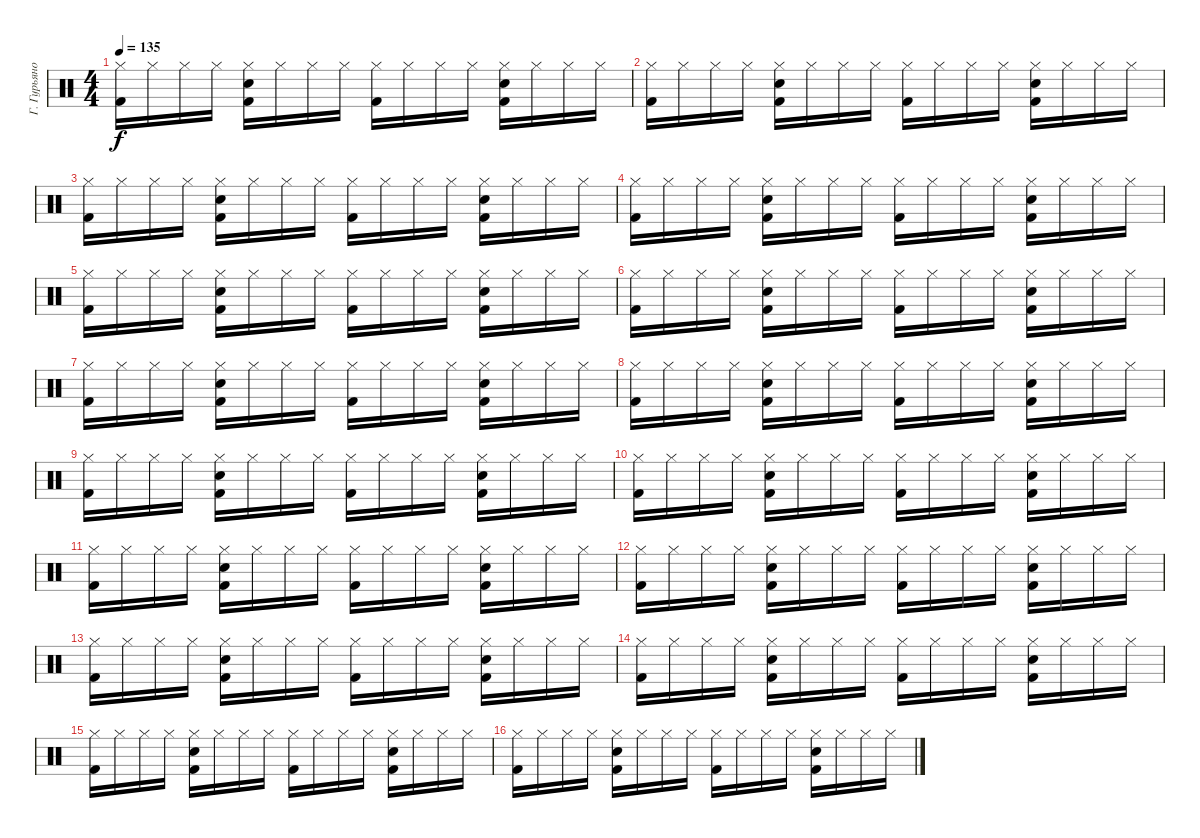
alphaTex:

\track ("Г. Гурьянов" "Г. Гурьяно") {instrument percussion}
\staff {score}
\articulation defaults
\ts (4 4)
\tempo 135
\clef neutral
\ks c
("Hi-Hat (closed)" "Kick (hit) 2").16{dy f} "Hi-Hat (closed)".16 "Hi-Hat (closed)".16 "Hi-Hat (closed)".16 ("Hi-Hat (closed)" "Electric Snare (hit)" "Kick (hit) 2").16 "Hi-Hat (closed)".16 "Hi-Hat (closed)".16 "Hi-Hat (closed)".16 ("Hi-Hat (closed)" "Kick (hit) 2").16 "Hi-Hat (closed)".16 "Hi-Hat (closed)".16 "Hi-Hat (closed)".16 ("Hi-Hat (closed)" "Electric Snare (hit)" "Kick (hit) 2").16 "Hi-Hat (closed)".16 "Hi-Hat (closed)".16 "Hi-Hat (closed)".16 |
("Hi-Hat (closed)" "Kick (hit) 2").16 "Hi-Hat (closed)".16 "Hi-Hat (closed)".16 "Hi-Hat (closed)".16 ("Hi-Hat (closed)" "Electric Snare (hit)" "Kick (hit) 2").16 "Hi-Hat (closed)".16 "Hi-Hat (closed)".16 "Hi-Hat (closed)".16 ("Hi-Hat (closed)" "Kick (hit) 2").16 "Hi-Hat (closed)".16 "Hi-Hat (closed)".16 "Hi-Hat (closed)".16 ("Hi-Hat (closed)" "Electric Snare (hit)" "Kick (hit) 2").16 "Hi-Hat (closed)".16 "Hi-Hat (closed)".16 "Hi-Hat (closed)".16 |
("Hi-Hat (closed)" "Kick (hit) 2").16 "Hi-Hat (closed)".16 "Hi-Hat (closed)".16 "Hi-Hat (closed)".16 ("Hi-Hat (closed)" "Electric Snare (hit)" "Kick (hit) 2").16 "Hi-Hat (closed)".16 "Hi-Hat (closed)".16 "Hi-Hat (closed)".16 ("Hi-Hat (closed)" "Kick (hit) 2").16 "Hi-Hat (closed)".16 "Hi-Hat (closed)".16 "Hi-Hat (closed)".16 ("Hi-Hat (closed)" "Electric Snare (hit)" "Kick (hit) 2").16 "Hi-Hat (closed)".16 "Hi-Hat (closed)".16 "Hi-Hat (closed)".16 |
("Hi-Hat (closed)" "Kick (hit) 2").16 "Hi-Hat (closed)".16 "Hi-Hat (closed)".16 "Hi-Hat (closed)".16 ("Hi-Hat (closed)" "Electric Snare (hit)" "Kick (hit) 2").16 "Hi-Hat (closed)".16 "Hi-Hat (closed)".16 "Hi-Hat (closed)".16 ("Hi-Hat (closed)" "Kick (hit) 2").16 "Hi-Hat (closed)".16 "Hi-Hat (closed)".16 "Hi-Hat (closed)".16 ("Hi-Hat (closed)" "Electric Snare (hit)" "Kick (hit) 2").16 "Hi-Hat (closed)".16 "Hi-Hat (closed)".16 "Hi-Hat (closed)".16 |
("Hi-Hat (closed)" "Kick (hit) 2").16 "Hi-Hat (closed)".16 "Hi-Hat (closed)".16 "Hi-Hat (closed)".16 ("Hi-Hat (closed)" "Electric Snare (hit)" "Kick (hit) 2").16 "Hi-Hat (closed)".16 "Hi-Hat (closed)".16 "Hi-Hat (closed)".16 ("Hi-Hat (closed)" "Kick (hit) 2").16 "Hi-Hat (closed)".16 "Hi-Hat (closed)".16 "Hi-Hat (closed)".16 ("Hi-Hat (closed)" "Electric Snare (hit)" "Kick (hit) 2").16 "Hi-Hat (closed)".16 "Hi-Hat (closed)".16 "Hi-Hat (closed)".16 |
("Hi-Hat (closed)" "Kick (hit) 2").16 "Hi-Hat (closed)".16 "Hi-Hat (closed)".16 "Hi-Hat (closed)".16 ("Hi-Hat (closed)" "Electric Snare (hit)" "Kick (hit) 2").16 "Hi-Hat (closed)".16 "Hi-Hat (closed)".16 "Hi-Hat (closed)".16 ("Hi-Hat (closed)" "Kick (hit) 2").16 "Hi-Hat (closed)".16 "Hi-Hat (closed)".16 "Hi-Hat (closed)".16 ("Hi-Hat (closed)" "Electric Snare (hit)" "Kick (hit) 2").16 "Hi-Hat (closed)".16 "Hi-Hat (closed)".16 "Hi-Hat (closed)".16 |
("Hi-Hat (closed)" "Kick (hit) 2").16 "Hi-Hat (closed)".16 "Hi-Hat (closed)".16 "Hi-Hat (closed)".16 ("Hi-Hat (closed)" "Electric Snare (hit)" "Kick (hit) 2").16 "Hi-Hat (closed)".16 "Hi-Hat (closed)".16 "Hi-Hat (closed)".16 ("Hi-Hat (closed)" "Kick (hit) 2").16 "Hi-Hat (closed)".16 "Hi-Hat (closed)".16 "Hi-Hat (closed)".16 ("Hi-Hat (closed)" "Electric Snare (hit)" "Kick (hit) 2").16 "Hi-Hat (closed)".16 "Hi-Hat (closed)".16 "Hi-Hat (closed)".16 |
("Hi-Hat (closed)" "Kick (hit) 2").16 "Hi-Hat (closed)".16 "Hi-Hat (closed)".16 "Hi-Hat (closed)".16 ("Hi-Hat (closed)" "Electric Snare (hit)" "Kick (hit) 2").16 "Hi-Hat (closed)".16 "Hi-Hat (closed)".16 "Hi-Hat (closed)".16 ("Hi-Hat (closed)" "Kick (hit) 2").16 "Hi-Hat (closed)".16 "Hi-Hat (closed)".16 "Hi-Hat (closed)".16 ("Hi-Hat (closed)" "Electric Snare (hit)" "Kick (hit) 2").16 "Hi-Hat (closed)".16 "Hi-Hat (closed)".16 "Hi-Hat (closed)".16 |
("Hi-Hat (closed)" "Kick (hit) 2").16 "Hi-Hat (closed)".16 "Hi-Hat (closed)".16 "Hi-Hat (closed)".16 ("Hi-Hat (closed)" "Electric Snare (hit)" "Kick (hit) 2").16 "Hi-Hat (closed)".16 "Hi-Hat (closed)".16 "Hi-Hat (closed)".16 ("Hi-Hat (closed)" "Kick (hit) 2").16 "Hi-Hat (closed)".16 "Hi-Hat (closed)".16 "Hi-Hat (closed)".16 ("Hi-Hat (closed)" "Electric Snare (hit)" "Kick (hit) 2").16 "Hi-Hat (closed)".16 "Hi-Hat (closed)".16 "Hi-Hat (closed)".16 |
("Hi-Hat (closed)" "Kick (hit) 2").16 "Hi-Hat (closed)".16 "Hi-Hat (closed)".16 "Hi-Hat (closed)".16 ("Hi-Hat (closed)" "Electric Snare (hit)" "Kick (hit) 2").16 "Hi-Hat (closed)".16 "Hi-Hat (closed)".16 "Hi-Hat (closed)".16 ("Hi-Hat (closed)" "Kick (hit) 2").16 "Hi-Hat (closed)".16 "Hi-Hat (closed)".16 "Hi-Hat (closed)".16 ("Hi-Hat (closed)" "Electric Snare (hit)" "Kick (hit) 2").16 "Hi-Hat (closed)".16 "Hi-Hat (closed)".16 "Hi-Hat (closed)".16 |
("Hi-Hat (closed)" "Kick (hit) 2").16 "Hi-Hat (closed)".16 "Hi-Hat (closed)".16 "Hi-Hat (closed)".16 ("Hi-Hat (closed)" "Electric Snare (hit)" "Kick (hit) 2").16 "Hi-Hat (closed)".16 "Hi-Hat (closed)".16 "Hi-Hat (closed)".16 ("Hi-Hat (closed)" "Kick (hit) 2").16 "Hi-Hat (closed)".16 "Hi-Hat (closed)".16 "Hi-Hat (closed)".16 ("Hi-Hat (closed)" "Electric Snare (hit)" "Kick (hit) 2").16 "Hi-Hat (closed)".16 "Hi-Hat (closed)".16 "Hi-Hat (closed)".16 |
("Hi-Hat (closed)" "Kick (hit) 2").16 "Hi-Hat (closed)".16 "Hi-Hat (closed)".16 "Hi-Hat (closed)".16 ("Hi-Hat (closed)" "Electric Snare (hit)" "Kick (hit) 2").16 "Hi-Hat (closed)".16 "Hi-Hat (closed)".16 "Hi-Hat (closed)".16 ("Hi-Hat (closed)" "Kick (hit) 2").16 "Hi-Hat (closed)".16 "Hi-Hat (closed)".16 "Hi-Hat (closed)".16 ("Hi-Hat (closed)" "Electric Snare (hit)" "Kick (hit) 2").16 "Hi-Hat (closed)".16 "Hi-Hat (closed)".16 "Hi-Hat (closed)".16 |
("Hi-Hat (closed)" "Kick (hit) 2").16 "Hi-Hat (closed)".16 "Hi-Hat (closed)".16 "Hi-Hat (closed)".16 ("Hi-Hat (closed)" "Electric Snare (hit)" "Kick (hit) 2").16 "Hi-Hat (closed)".16 "Hi-Hat (closed)".16 "Hi-Hat (closed)".16 ("Hi-Hat (closed)" "Kick (hit) 2").16 "Hi-Hat (closed)".16 "Hi-Hat (closed)".16 "Hi-Hat (closed)".16 ("Hi-Hat (closed)" "Electric Snare (hit)" "Kick (hit) 2").16 "Hi-Hat (closed)".16 "Hi-Hat (closed)".16 "Hi-Hat (closed)".16 |
("Hi-Hat (closed)" "Kick (hit) 2").16 "Hi-Hat (closed)".16 "Hi-Hat (closed)".16 "Hi-Hat (closed)".16 ("Hi-Hat (closed)" "Electric Snare (hit)" "Kick (hit) 2").16 "Hi-Hat (closed)".16 "Hi-Hat (closed)".16 "Hi-Hat (closed)".16 ("Hi-Hat (closed)" "Kick (hit) 2").16 "Hi-Hat (closed)".16 "Hi-Hat (closed)".16 "Hi-Hat (closed)".16 ("Hi-Hat (closed)" "Electric Snare (hit)" "Kick (hit) 2").16 "Hi-Hat (closed)".16 "Hi-Hat (closed)".16 "Hi-Hat (closed)".16 |
("Hi-Hat (closed)" "Kick (hit) 2").16 "Hi-Hat (closed)".16 "Hi-Hat (closed)".16 "Hi-Hat (closed)".16 ("Hi-Hat (closed)" "Electric Snare (hit)" "Kick (hit) 2").16 "Hi-Hat (closed)".16 "Hi-Hat (closed)".16 "Hi-Hat (closed)".16 ("Hi-Hat (closed)" "Kick (hit) 2").16 "Hi-Hat (closed)".16 "Hi-Hat (closed)".16 "Hi-Hat (closed)".16 ("Hi-Hat (closed)" "Electric Snare (hit)" "Kick (hit) 2").16 "Hi-Hat (closed)".16 "Hi-Hat (closed)".16 "Hi-Hat (closed)".16 |
("Hi-Hat (closed)" "Kick (hit) 2").16 "Hi-Hat (closed)".16 "Hi-Hat (closed)".16 "Hi-Hat (closed)".16 ("Hi-Hat (closed)" "Electric Snare (hit)" "Kick (hit) 2").16 "Hi-Hat (closed)".16 "Hi-Hat (closed)".16 "Hi-Hat (closed)".16 ("Hi-Hat (closed)" "Kick (hit) 2").16 "Hi-Hat (closed)".16 "Hi-Hat (closed)".16 "Hi-Hat (closed)".16 ("Hi-Hat (closed)" "Electric Snare (hit)" "Kick (hit) 2").16 "Hi-Hat (closed)".16 "Hi-Hat (closed)".16 "Hi-Hat (closed)".16
